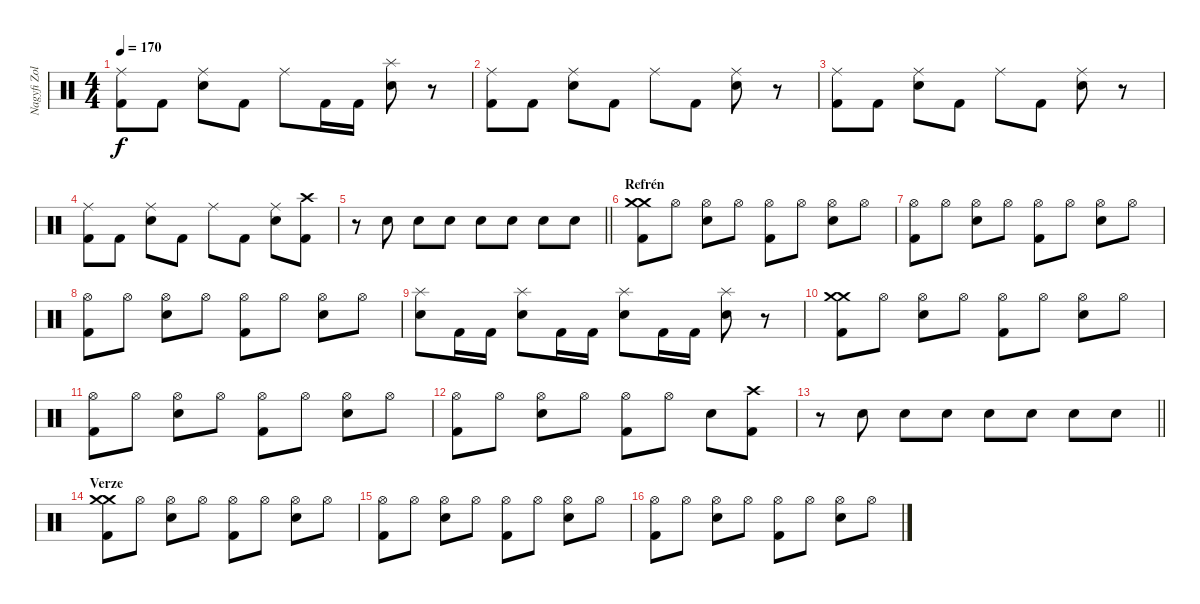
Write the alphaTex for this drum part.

\track ("Nagyfi Zoltán - Dob" "Nagyfi Zol") {instrument percussion}
\staff {score}
\articulation defaults
\ts (4 4)
\tempo 170
\clef neutral
\ks c
("Ride (middle)" "Kick (hit) 2").8{dy f} "Kick (hit) 2".8 ("Ride (middle)" "Electric Snare (hit)").8 "Kick (hit) 2".8 "Ride (middle)".8 "Kick (hit) 2".16 "Kick (hit) 2".16 ("Splash (hit)" "Electric Snare (hit)").8 r.8 |
("Ride (middle)" "Kick (hit) 2").8 "Kick (hit) 2".8 ("Ride (middle)" "Electric Snare (hit)").8 "Kick (hit) 2".8 "Ride (middle)".8 "Kick (hit) 2".8 ("Ride (middle)" "Electric Snare (hit)").8 r.8 |
("Ride (middle)" "Kick (hit) 2").8 "Kick (hit) 2".8 ("Ride (middle)" "Electric Snare (hit)").8 "Kick (hit) 2".8 "Ride (middle)".8 "Kick (hit) 2".8 ("Ride (middle)" "Electric Snare (hit)").8 r.8 |
("Ride (middle)" "Kick (hit) 2").8 "Kick (hit) 2".8 ("Ride (middle)" "Electric Snare (hit)").8 "Kick (hit) 2".8 "Ride (middle)".8 "Kick (hit) 2".8 ("Ride (middle)" "Electric Snare (hit)").8 ("Crash high (hit)" "Kick (hit) 2").8 |
\barLineRight lightlight
r.8 "Electric Snare (hit)".8 "Electric Snare (hit)".8 "Electric Snare (hit)".8 "Electric Snare (hit)".8 "Electric Snare (hit)".8 "Electric Snare (hit)".8 "Electric Snare (hit)".8 |
\section ("" "Refrén")
("Crash medium (hit)" "Crash medium (hit)" "Kick (hit) 2").8 "Hi-Hat (open)".8 ("Hi-Hat (open)" "Electric Snare (hit)").8 "Hi-Hat (open)".8 ("Hi-Hat (open)" "Kick (hit) 2").8 "Hi-Hat (open)".8 ("Hi-Hat (open)" "Electric Snare (hit)").8 "Hi-Hat (open)".8 |
("Hi-Hat (open)" "Kick (hit) 2").8 "Hi-Hat (open)".8 ("Hi-Hat (open)" "Electric Snare (hit)").8 "Hi-Hat (open)".8 ("Hi-Hat (open)" "Kick (hit) 2").8 "Hi-Hat (open)".8 ("Hi-Hat (open)" "Electric Snare (hit)").8 "Hi-Hat (open)".8 |
("Hi-Hat (open)" "Kick (hit) 2").8 "Hi-Hat (open)".8 ("Hi-Hat (open)" "Electric Snare (hit)").8 "Hi-Hat (open)".8 ("Hi-Hat (open)" "Kick (hit) 2").8 "Hi-Hat (open)".8 ("Hi-Hat (open)" "Electric Snare (hit)").8 "Hi-Hat (open)".8 |
("Splash (hit)" "Electric Snare (hit)").8 "Kick (hit) 2".16 "Kick (hit) 2".16 ("Splash (hit)" "Electric Snare (hit)").8 "Kick (hit) 2".16 "Kick (hit) 2".16 ("Splash (hit)" "Electric Snare (hit)").8 "Kick (hit) 2".16 "Kick (hit) 2".16 ("Splash (hit)" "Electric Snare (hit)").8 r.8 |
("Crash medium (hit)" "Crash medium (hit)" "Kick (hit) 2").8 "Hi-Hat (open)".8 ("Hi-Hat (open)" "Electric Snare (hit)").8 "Hi-Hat (open)".8 ("Hi-Hat (open)" "Kick (hit) 2").8 "Hi-Hat (open)".8 ("Hi-Hat (open)" "Electric Snare (hit)").8 "Hi-Hat (open)".8 |
("Hi-Hat (open)" "Kick (hit) 2").8 "Hi-Hat (open)".8 ("Hi-Hat (open)" "Electric Snare (hit)").8 "Hi-Hat (open)".8 ("Hi-Hat (open)" "Kick (hit) 2").8 "Hi-Hat (open)".8 ("Hi-Hat (open)" "Electric Snare (hit)").8 "Hi-Hat (open)".8 |
("Hi-Hat (open)" "Kick (hit) 2").8 "Hi-Hat (open)".8 ("Hi-Hat (open)" "Electric Snare (hit)").8 "Hi-Hat (open)".8 ("Hi-Hat (open)" "Kick (hit) 2").8 "Hi-Hat (open)".8 "Electric Snare (hit)".8 ("Crash high (hit)" "Kick (hit) 2").8 |
\barLineRight lightlight
r.8 "Electric Snare (hit)".8 "Electric Snare (hit)".8 "Electric Snare (hit)".8 "Electric Snare (hit)".8 "Electric Snare (hit)".8 "Electric Snare (hit)".8 "Electric Snare (hit)".8 |
\section ("" "Verze")
("Crash medium (hit)" "Crash medium (hit)" "Kick (hit) 2").8 "Hi-Hat (open)".8 ("Hi-Hat (open)" "Electric Snare (hit)").8 "Hi-Hat (open)".8 ("Hi-Hat (open)" "Kick (hit) 2").8 "Hi-Hat (open)".8 ("Hi-Hat (open)" "Electric Snare (hit)").8 "Hi-Hat (open)".8 |
("Hi-Hat (open)" "Kick (hit) 2").8 "Hi-Hat (open)".8 ("Hi-Hat (open)" "Electric Snare (hit)").8 "Hi-Hat (open)".8 ("Hi-Hat (open)" "Kick (hit) 2").8 "Hi-Hat (open)".8 ("Hi-Hat (open)" "Electric Snare (hit)").8 "Hi-Hat (open)".8 |
("Hi-Hat (open)" "Kick (hit) 2").8 "Hi-Hat (open)".8 ("Hi-Hat (open)" "Electric Snare (hit)").8 "Hi-Hat (open)".8 ("Hi-Hat (open)" "Kick (hit) 2").8 "Hi-Hat (open)".8 ("Hi-Hat (open)" "Electric Snare (hit)").8 "Hi-Hat (open)".8
